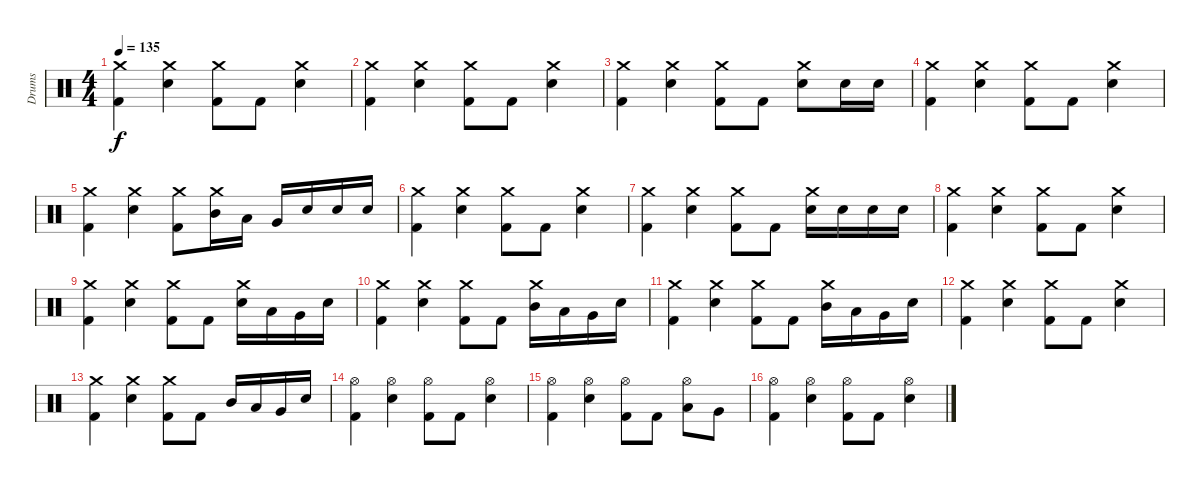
\track ("Drums" "Drums") {instrument percussion}
\staff {score}
\articulation defaults
\ts (4 4)
\tempo 135
\clef neutral
\ks c
("Crash medium (hit)" "Kick (hit) 2").4{dy f} ("Crash medium (hit)" "Electric Snare (hit)").4 ("Crash medium (hit)" "Kick (hit) 2").8 "Kick (hit) 2".8 ("Crash medium (hit)" "Electric Snare (hit)").4 |
("Crash medium (hit)" "Kick (hit) 2").4 ("Crash medium (hit)" "Electric Snare (hit)").4 ("Crash medium (hit)" "Kick (hit) 2").8 "Kick (hit) 2".8 ("Crash medium (hit)" "Electric Snare (hit)").4 |
("Crash medium (hit)" "Kick (hit) 2").4 ("Crash medium (hit)" "Electric Snare (hit)").4 ("Crash medium (hit)" "Kick (hit) 2").8 "Kick (hit) 2".8 ("Crash medium (hit)" "Electric Snare (hit)").8 "Electric Snare (hit)".16 "Electric Snare (hit)".16 |
("Crash medium (hit)" "Kick (hit) 2").4 ("Crash medium (hit)" "Electric Snare (hit)").4 ("Crash medium (hit)" "Kick (hit) 2").8 "Kick (hit) 2".8 ("Crash medium (hit)" "Electric Snare (hit)").4 |
("Crash medium (hit)" "Kick (hit) 2").4 ("Crash medium (hit)" "Electric Snare (hit)").4 ("Crash medium (hit)" "Kick (hit) 2").8 ("Mid Tom (hit)" "Crash medium (hit)").16 "Low Tom (hit)".16 "Very Low Tom (hit)".16 "Electric Snare (hit)".16 "Electric Snare (hit)".16 "Electric Snare (hit)".16 |
("Crash medium (hit)" "Kick (hit) 2").4 ("Crash medium (hit)" "Electric Snare (hit)").4 ("Crash medium (hit)" "Kick (hit) 2").8 "Kick (hit) 2".8 ("Crash medium (hit)" "Electric Snare (hit)").4 |
("Crash medium (hit)" "Kick (hit) 2").4 ("Crash medium (hit)" "Electric Snare (hit)").4 ("Crash medium (hit)" "Kick (hit) 2").8 "Kick (hit) 2".8 ("Crash medium (hit)" "Electric Snare (hit)").16 "Electric Snare (hit)".16 "Electric Snare (hit)".16 "Electric Snare (hit)".16 |
("Crash medium (hit)" "Kick (hit) 2").4 ("Crash medium (hit)" "Electric Snare (hit)").4 ("Crash medium (hit)" "Kick (hit) 2").8 "Kick (hit) 2".8 ("Crash medium (hit)" "Electric Snare (hit)").4 |
("Crash medium (hit)" "Kick (hit) 2").4 ("Crash medium (hit)" "Electric Snare (hit)").4 ("Crash medium (hit)" "Kick (hit) 2").8 "Kick (hit) 2".8 ("Crash medium (hit)" "Electric Snare (hit)").16 "Low Tom (hit)".16 "Very Low Tom (hit)".16 "Electric Snare (hit)".16 |
("Crash medium (hit)" "Kick (hit) 2").4 ("Crash medium (hit)" "Electric Snare (hit)").4 ("Crash medium (hit)" "Kick (hit) 2").8 "Kick (hit) 2".8 ("Mid Tom (hit)" "Crash medium (hit)").16 "Low Tom (hit)".16 "Very Low Tom (hit)".16 "Electric Snare (hit)".16 |
("Crash medium (hit)" "Kick (hit) 2").4 ("Crash medium (hit)" "Electric Snare (hit)").4 ("Crash medium (hit)" "Kick (hit) 2").8 "Kick (hit) 2".8 ("Mid Tom (hit)" "Crash medium (hit)").16 "Low Tom (hit)".16 "Very Low Tom (hit)".16 "Electric Snare (hit)".16 |
("Crash medium (hit)" "Kick (hit) 2").4 ("Crash medium (hit)" "Electric Snare (hit)").4 ("Crash medium (hit)" "Kick (hit) 2").8 "Kick (hit) 2".8 ("Crash medium (hit)" "Electric Snare (hit)").4 |
("Crash medium (hit)" "Kick (hit) 2").4 ("Crash medium (hit)" "Electric Snare (hit)").4 ("Crash medium (hit)" "Kick (hit) 2").8 "Kick (hit) 2".8 "Mid Tom (hit)".16 "Low Tom (hit)".16 "Very Low Tom (hit)".16 "Electric Snare (hit)".16 |
("Hi-Hat (open)" "Kick (hit) 2").4 ("Hi-Hat (open)" "Electric Snare (hit)").4 ("Hi-Hat (open)" "Kick (hit) 2").8 "Kick (hit) 2".8 ("Hi-Hat (open)" "Electric Snare (hit)").4 |
("Hi-Hat (open)" "Kick (hit) 2").4 ("Hi-Hat (open)" "Electric Snare (hit)").4 ("Hi-Hat (open)" "Kick (hit) 2").8 "Kick (hit) 2".8 ("Hi-Hat (open)" "Low Tom (hit)").8 "Very Low Tom (hit)".8 |
("Hi-Hat (open)" "Kick (hit) 2").4 ("Hi-Hat (open)" "Electric Snare (hit)").4 ("Hi-Hat (open)" "Kick (hit) 2").8 "Kick (hit) 2".8 ("Hi-Hat (open)" "Electric Snare (hit)").4
